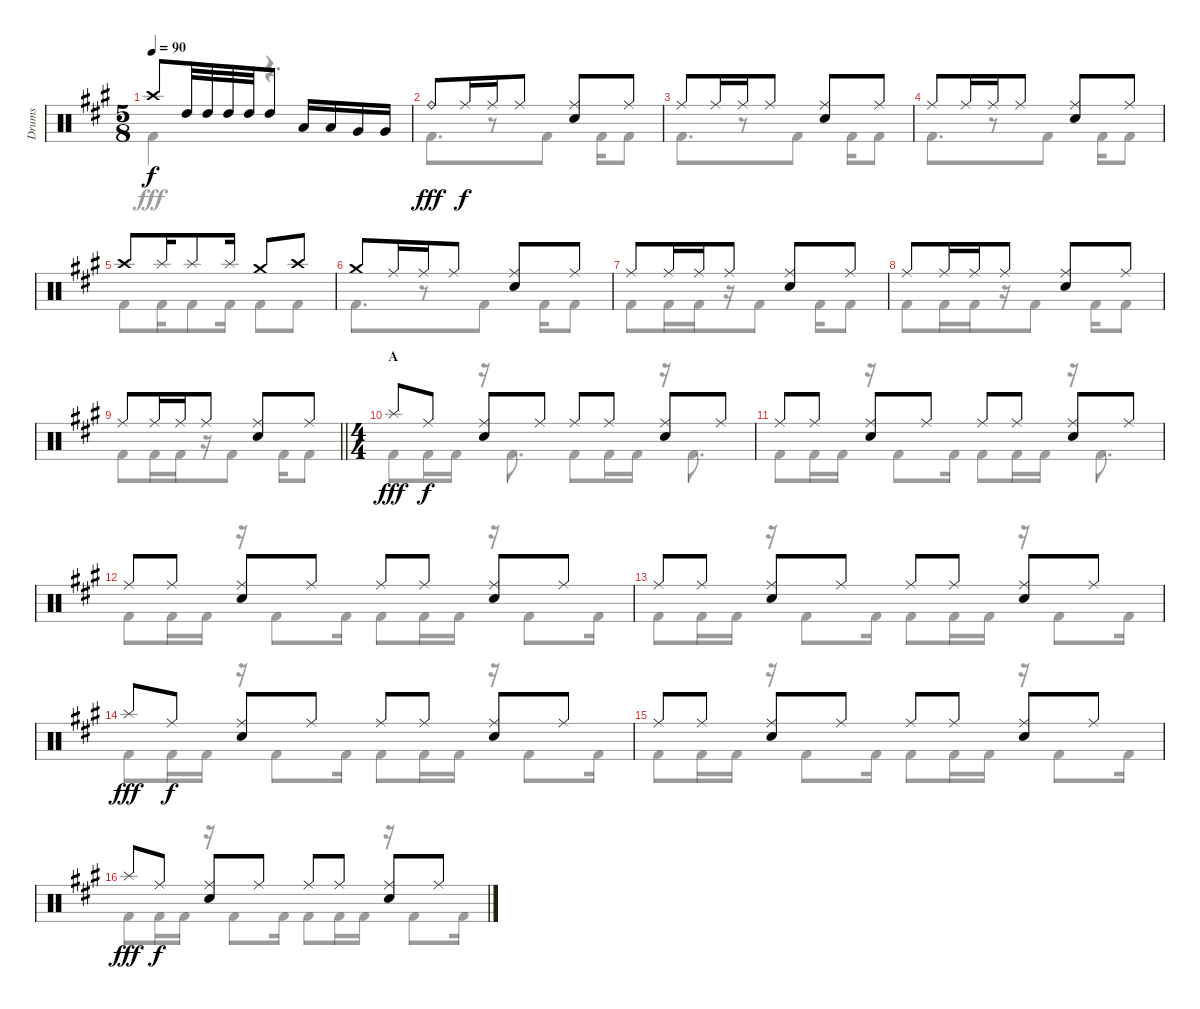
\track ("Drums" "Drums") {instrument percussion}
\staff {score}
\articulation defaults
\voice
\ts (5 8)
\tempo 90
\clef neutral
\ks a "Crash high (hit)".8{dy f} "High Tom (hit)".32 "High Tom (hit)".32 "High Tom (hit)".32 "High Tom (hit)".32 "High Tom (hit)".8 "Low Tom (hit)".16 "Low Tom (hit)".16 "Very Low Tom (hit)".16 "Very Low Tom (hit)".16
|
"Ride (bell)".8{dy fff} "Ride (middle)".16{dy f} "Ride (middle)".16 "Ride (middle)".8 ("Ride (middle)" "Snare (hit) 2").8 "Ride (middle)".8 |
"Ride (middle)".8 "Ride (middle)".16 "Ride (middle)".16 "Ride (middle)".8 ("Ride (middle)" "Snare (hit) 2").8 "Ride (middle)".8 |
"Ride (middle)".8 "Ride (middle)".16 "Ride (middle)".16 "Ride (middle)".8 ("Ride (middle)" "Snare (hit) 2").8 "Ride (middle)".8 |
"Crash high (hit)".8 "Splash (hit)".16 "Splash (hit)".8 "Splash (hit)".16 "Crash medium (hit)".8 "Crash high (hit)".8 |
"Crash medium (hit)".8 "Ride (middle)".16 "Ride (middle)".16 "Ride (middle)".8 ("Ride (middle)" "Snare (hit) 2").8 "Ride (middle)".8 |
"Ride (middle)".8 "Ride (middle)".16 "Ride (middle)".16 "Ride (middle)".8 ("Ride (middle)" "Snare (hit) 2").8 "Ride (middle)".8 |
"Ride (middle)".8 "Ride (middle)".16 "Ride (middle)".16 "Ride (middle)".8 ("Ride (middle)" "Snare (hit) 2").8 "Ride (middle)".8 |
\barLineRight lightlight "Ride (middle)".8 "Ride (middle)".16 "Ride (middle)".16 "Ride (middle)".8
("Ride (middle)" "Snare (hit) 2").8 "Ride (middle)".8 |
\ts (4 4)
\section ("" "A")
"Splash (hit)".8{dy fff} "Ride (middle)".8{dy f} ("Ride (middle)" "Snare (hit) 2").8 "Ride (middle)".8 "Ride (middle)".8 "Ride (middle)".8 ("Ride (middle)" "Snare (hit) 2").8 "Ride (middle)".8 |
"Ride (middle)".8 "Ride (middle)".8 ("Ride (middle)" "Snare (hit) 2").8 "Ride (middle)".8 "Ride (middle)".8 "Ride (middle)".8 ("Ride (middle)" "Snare (hit) 2").8 "Ride (middle)".8 |
"Ride (middle)".8 "Ride (middle)".8 ("Ride (middle)" "Snare (hit) 2").8 "Ride (middle)".8 "Ride (middle)".8 "Ride (middle)".8 ("Ride (middle)" "Snare (hit) 2").8 "Ride (middle)".8 |
"Ride (middle)".8 "Ride (middle)".8 ("Ride (middle)" "Snare (hit) 2").8 "Ride (middle)".8 "Ride (middle)".8 "Ride (middle)".8 ("Ride (middle)" "Snare (hit) 2").8 "Ride (middle)".8 |
"Splash (hit)".8{dy fff} "Ride (middle)".8{dy f} ("Ride (middle)" "Snare (hit) 2").8 "Ride (middle)".8 "Ride (middle)".8 "Ride (middle)".8 ("Ride (middle)" "Snare (hit) 2").8 "Ride (middle)".8 |
"Ride (middle)".8 "Ride (middle)".8 ("Ride (middle)" "Snare (hit) 2").8 "Ride (middle)".8 "Ride (middle)".8 "Ride (middle)".8 ("Ride (middle)" "Snare (hit) 2").8 "Ride (middle)".8 |
"Splash (hit)".8{dy fff} "Ride (middle)".8{dy f} ("Ride (middle)" "Snare (hit) 2").8 "Ride (middle)".8 "Ride (middle)".8 "Ride (middle)".8 ("Ride (middle)" "Snare (hit) 2").8 "Ride (middle)".8
\voice
\clef neutral
\ottava regular
\simile none
\ks a "Kick (hit) 2".4{dy fff}
r.4{d} |
"Kick (hit) 2".8{d} r.8 "Kick (hit) 2".8 "Kick (hit) 2".16 "Kick (hit) 2".8 |
"Kick (hit) 2".8{d} r.8 "Kick (hit) 2".8 "Kick (hit) 2".16 "Kick (hit) 2".8 |
"Kick (hit) 2".8{d} r.8 "Kick (hit) 2".8 "Kick (hit) 2".16 "Kick (hit) 2".8 |
"Kick (hit) 2".8 "Kick (hit) 2".16 "Kick (hit) 2".8 "Kick (hit) 2".16 "Kick (hit) 2".8 "Kick (hit) 2".8 |
"Kick (hit) 2".8{d} r.8 "Kick (hit) 2".8 "Kick (hit) 2".16 "Kick (hit) 2".8 |
"Kick (hit) 2".8 "Kick (hit) 2".16 "Kick (hit) 2".16 r.16 "Kick (hit) 2".8 "Kick (hit) 2".16 "Kick (hit) 2".8 |
"Kick (hit) 2".8 "Kick (hit) 2".16 "Kick (hit) 2".16 r.16 "Kick (hit) 2".8 "Kick (hit) 2".16 "Kick (hit) 2".8 |
\barLineRight lightlight "Kick (hit) 2".8 "Kick (hit) 2".16 "Kick (hit) 2".16
r.16 "Kick (hit) 2".8 "Kick (hit) 2".16 "Kick (hit) 2".8 |
"Kick (hit) 2".8 "Kick (hit) 2".16 "Kick (hit) 2".16 r.16 "Kick (hit) 2".8{d} "Kick (hit) 2".8 "Kick (hit) 2".16 "Kick (hit) 2".16 r.16 "Kick (hit) 2".8{d} |
"Kick (hit) 2".8 "Kick (hit) 2".16 "Kick (hit) 2".16 r.16 "Kick (hit) 2".8 "Kick (hit) 2".16 "Kick (hit) 2".8 "Kick (hit) 2".16 "Kick (hit) 2".16 r.16 "Kick (hit) 2".8{d} |
"Kick (hit) 2".8 "Kick (hit) 2".16 "Kick (hit) 2".16 r.16 "Kick (hit) 2".8 "Kick (hit) 2".16 "Kick (hit) 2".8 "Kick (hit) 2".16 "Kick (hit) 2".16 r.16 "Kick (hit) 2".8 "Kick (hit) 2".16 |
"Kick (hit) 2".8 "Kick (hit) 2".16 "Kick (hit) 2".16 r.16 "Kick (hit) 2".8 "Kick (hit) 2".16 "Kick (hit) 2".8 "Kick (hit) 2".16 "Kick (hit) 2".16 r.16 "Kick (hit) 2".8 "Kick (hit) 2".16 |
"Kick (hit) 2".8 "Kick (hit) 2".16 "Kick (hit) 2".16 r.16 "Kick (hit) 2".8 "Kick (hit) 2".16 "Kick (hit) 2".8 "Kick (hit) 2".16 "Kick (hit) 2".16 r.16 "Kick (hit) 2".8 "Kick (hit) 2".16 |
"Kick (hit) 2".8 "Kick (hit) 2".16 "Kick (hit) 2".16 r.16 "Kick (hit) 2".8 "Kick (hit) 2".16 "Kick (hit) 2".8 "Kick (hit) 2".16 "Kick (hit) 2".16 r.16 "Kick (hit) 2".8 "Kick (hit) 2".16 |
"Kick (hit) 2".8 "Kick (hit) 2".16 "Kick (hit) 2".16 r.16 "Kick (hit) 2".8 "Kick (hit) 2".16 "Kick (hit) 2".8 "Kick (hit) 2".16 "Kick (hit) 2".16 r.16 "Kick (hit) 2".8 "Kick (hit) 2".16
